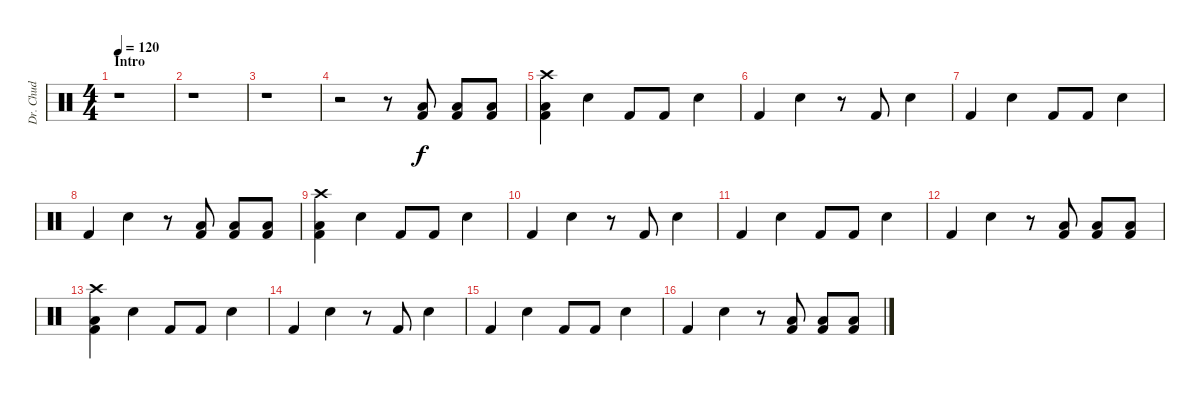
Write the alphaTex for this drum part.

\track ("Dr. Chud" "Dr. Chud") {instrument percussion}
\staff {score}
\articulation defaults
\ts (4 4)
\section ("" "Intro")
\tempo 120
\clef neutral
\ks c
r.1{dy f} |
r.1 |
r.1 |
r.2 r.8 ("Low Floor Tom (hit)" "Kick (hit) 2").8 ("Low Floor Tom (hit)" "Kick (hit) 2").8 ("Low Floor Tom (hit)" "Kick (hit) 2").8 |
("Crash high (hit)" "Low Floor Tom (hit)" "Kick (hit) 2").4 "Snare (hit) 2".4 "Kick (hit) 2".8 "Kick (hit) 2".8 "Snare (hit) 2".4 |
"Kick (hit) 2".4 "Snare (hit) 2".4 r.8 "Kick (hit) 2".8 "Snare (hit) 2".4 |
"Kick (hit) 2".4 "Snare (hit) 2".4 "Kick (hit) 2".8 "Kick (hit) 2".8 "Snare (hit) 2".4 |
"Kick (hit) 2".4 "Snare (hit) 2".4 r.8 ("Low Floor Tom (hit)" "Kick (hit) 2").8 ("Low Floor Tom (hit)" "Kick (hit) 2").8 ("Low Floor Tom (hit)" "Kick (hit) 2").8 |
("Crash high (hit)" "Low Floor Tom (hit)" "Kick (hit) 2").4 "Snare (hit) 2".4 "Kick (hit) 2".8 "Kick (hit) 2".8 "Snare (hit) 2".4 |
"Kick (hit) 2".4 "Snare (hit) 2".4 r.8 "Kick (hit) 2".8 "Snare (hit) 2".4 |
"Kick (hit) 2".4 "Snare (hit) 2".4 "Kick (hit) 2".8 "Kick (hit) 2".8 "Snare (hit) 2".4 |
"Kick (hit) 2".4 "Snare (hit) 2".4 r.8 ("Low Floor Tom (hit)" "Kick (hit) 2").8 ("Low Floor Tom (hit)" "Kick (hit) 2").8 ("Low Floor Tom (hit)" "Kick (hit) 2").8 |
("Crash high (hit)" "Low Floor Tom (hit)" "Kick (hit) 2").4 "Snare (hit) 2".4 "Kick (hit) 2".8 "Kick (hit) 2".8 "Snare (hit) 2".4 |
"Kick (hit) 2".4 "Snare (hit) 2".4 r.8 "Kick (hit) 2".8 "Snare (hit) 2".4 |
"Kick (hit) 2".4 "Snare (hit) 2".4 "Kick (hit) 2".8 "Kick (hit) 2".8 "Snare (hit) 2".4 |
"Kick (hit) 2".4 "Snare (hit) 2".4 r.8 ("Low Floor Tom (hit)" "Kick (hit) 2").8 ("Low Floor Tom (hit)" "Kick (hit) 2").8 ("Low Floor Tom (hit)" "Kick (hit) 2").8
